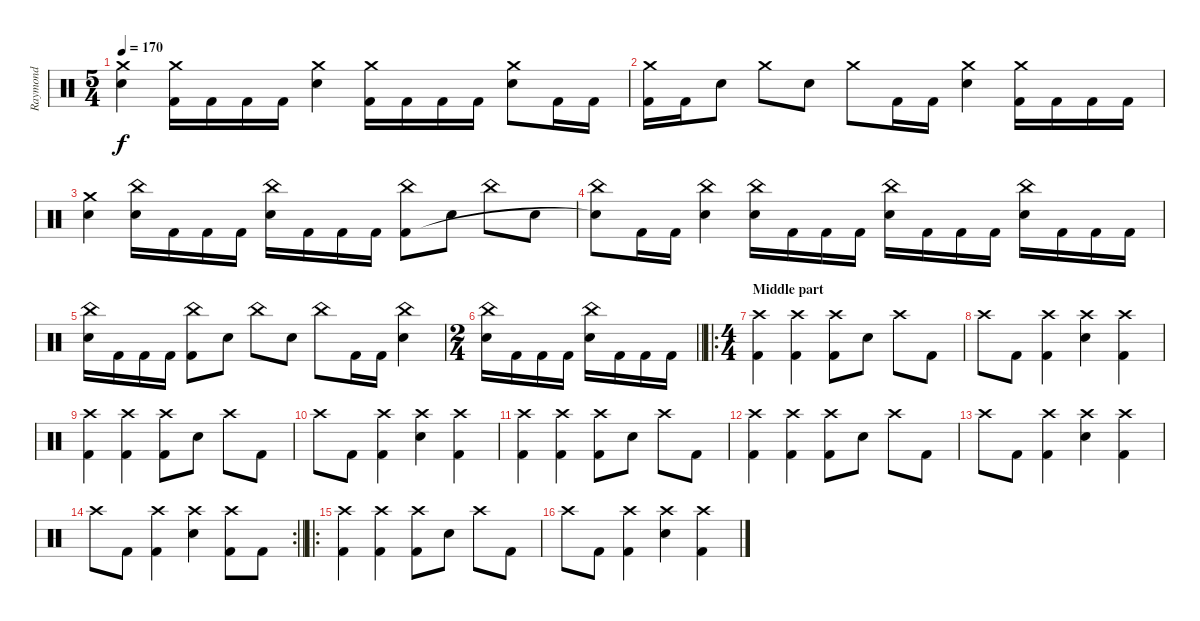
\track ("Raymond" "Raymond") {instrument percussion}
\staff {score}
\articulation defaults
\ts (5 4)
\tempo 170
\clef neutral
\ks c
("Crash medium (hit)" "Electric Snare (hit)").4{dy f} ("Crash medium (hit)" "Kick (hit) 2").16 "Kick (hit) 2".16 "Kick (hit) 2".16 "Kick (hit) 2".16 ("Crash medium (hit)" "Electric Snare (hit)").4 ("Crash medium (hit)" "Kick (hit) 2").16 "Kick (hit) 2".16 "Kick (hit) 2".16 "Kick (hit) 2".16 ("Crash medium (hit)" "Electric Snare (hit)").8 "Kick (hit) 2".16 "Kick (hit) 2".16 |
("Crash medium (hit)" "Kick (hit) 2").16 "Kick (hit) 2".16 "Electric Snare (hit)".8 "Crash medium (hit)".8 "Electric Snare (hit)".8 "Crash medium (hit)".8 "Kick (hit) 2".16 "Kick (hit) 2".16 ("Crash medium (hit)" "Electric Snare (hit)").4 ("Crash medium (hit)" "Kick (hit) 2").16 "Kick (hit) 2".16 "Kick (hit) 2".16 "Kick (hit) 2".16 |
("Crash medium (hit)" "Electric Snare (hit)").4 ("China (hit)" "Electric Snare (hit)").16 "Kick (hit) 2".16 "Kick (hit) 2".16 "Kick (hit) 2".16 ("China (hit)" "Electric Snare (hit)").16 "Kick (hit) 2".16 "Kick (hit) 2".16 "Kick (hit) 2".16 ("China (hit)" "Kick (hit) 2").8 "Electric Snare (hit)".8 "China (hit)".8 "Electric Snare (hit)".8 |
("China (hit)" "Snare (hit)"{t}).8 "Kick (hit) 2".16 "Kick (hit) 2".16 ("China (hit)" "Electric Snare (hit)").4 ("China (hit)" "Electric Snare (hit)").16 "Kick (hit) 2".16 "Kick (hit) 2".16 "Kick (hit) 2".16 ("China (hit)" "Electric Snare (hit)").16 "Kick (hit) 2".16 "Kick (hit) 2".16 "Kick (hit) 2".16 ("China (hit)" "Electric Snare (hit)").16 "Kick (hit) 2".16 "Kick (hit) 2".16 "Kick (hit) 2".16 |
("China (hit)" "Electric Snare (hit)").16 "Kick (hit) 2".16 "Kick (hit) 2".16 "Kick (hit) 2".16 ("China (hit)" "Kick (hit) 2").8 "Electric Snare (hit)".8 "China (hit)".8 "Electric Snare (hit)".8 "China (hit)".8 "Kick (hit) 2".16 "Kick (hit) 2".16 ("China (hit)" "Electric Snare (hit)").4 |
\ts (2 4)
\barLineRight lightlight
("China (hit)" "Electric Snare (hit)").16 "Kick (hit) 2".16 "Kick (hit) 2".16 "Kick (hit) 2".16 ("China (hit)" "Electric Snare (hit)").16 "Kick (hit) 2".16 "Kick (hit) 2".16 "Kick (hit) 2".16 |
\ro
\ts (4 4)
\section ("" "Middle part")
("Crash high (hit)" "Kick (hit) 2").4 ("Crash high (hit)" "Kick (hit) 2").4 ("Crash high (hit)" "Kick (hit) 2").8 "Electric Snare (hit)".8 "Crash high (hit)".8 "Kick (hit) 2".8 |
"Crash high (hit)".8 "Kick (hit) 2".8 ("Crash high (hit)" "Kick (hit) 2").4 ("Crash high (hit)" "Electric Snare (hit)").4 ("Crash high (hit)" "Kick (hit) 2").4 |
("Crash high (hit)" "Kick (hit) 2").4 ("Crash high (hit)" "Kick (hit) 2").4 ("Crash high (hit)" "Kick (hit) 2").8 "Electric Snare (hit)".8 "Crash high (hit)".8 "Kick (hit) 2".8 |
"Crash high (hit)".8 "Kick (hit) 2".8 ("Crash high (hit)" "Kick (hit) 2").4 ("Crash high (hit)" "Electric Snare (hit)").4 ("Crash high (hit)" "Kick (hit) 2").4 |
("Crash high (hit)" "Kick (hit) 2").4 ("Crash high (hit)" "Kick (hit) 2").4 ("Crash high (hit)" "Kick (hit) 2").8 "Electric Snare (hit)".8 "Crash high (hit)".8 "Kick (hit) 2".8 |
("Crash high (hit)" "Kick (hit) 2").4 ("Crash high (hit)" "Kick (hit) 2").4 ("Crash high (hit)" "Kick (hit) 2").8 "Electric Snare (hit)".8 "Crash high (hit)".8 "Kick (hit) 2".8 |
"Crash high (hit)".8 "Kick (hit) 2".8 ("Crash high (hit)" "Kick (hit) 2").4 ("Crash high (hit)" "Electric Snare (hit)").4 ("Crash high (hit)" "Kick (hit) 2").4 |
\rc 2
\barLineRight lightlight "Crash high (hit)".8 "Kick (hit) 2".8
("Crash high (hit)" "Kick (hit) 2").4 ("Crash high (hit)" "Electric Snare (hit)").4 ("Crash high (hit)" "Kick (hit) 2").8 "Kick (hit) 2".8 |
\ro
\section ("" "")
("Crash high (hit)" "Kick (hit) 2").4 ("Crash high (hit)" "Kick (hit) 2").4 ("Crash high (hit)" "Kick (hit) 2").8 "Electric Snare (hit)".8 "Crash high (hit)".8 "Kick (hit) 2".8 |
"Crash high (hit)".8 "Kick (hit) 2".8 ("Crash high (hit)" "Kick (hit) 2").4 ("Crash high (hit)" "Electric Snare (hit)").4 ("Crash high (hit)" "Kick (hit) 2").4
